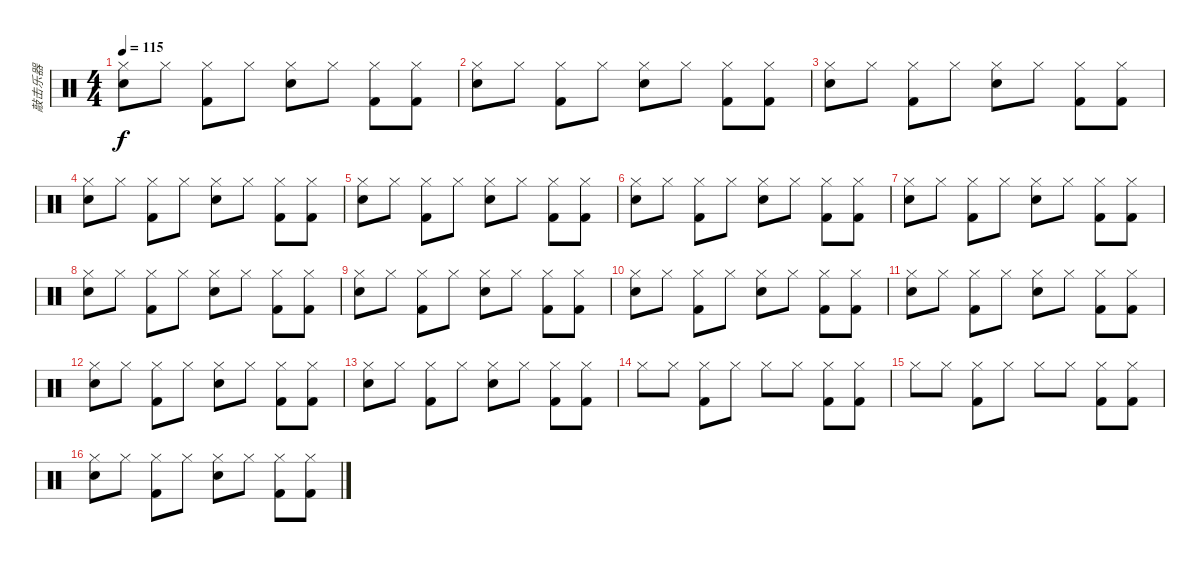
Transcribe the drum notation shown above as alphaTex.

\track ("敲击乐器" "敲击乐器") {instrument percussion}
\staff {score}
\articulation defaults
\ts (4 4)
\tempo 115
\clef neutral
\ks c
("Hi-Hat (closed)" "Electric Snare (hit)").8{dy f} "Hi-Hat (closed)".8 ("Hi-Hat (closed)" "Kick (hit) 2").8 "Hi-Hat (closed)".8 ("Hi-Hat (closed)" "Electric Snare (hit)").8 "Hi-Hat (closed)".8 ("Hi-Hat (closed)" "Kick (hit) 2").8 ("Hi-Hat (closed)" "Kick (hit) 2").8 |
("Hi-Hat (closed)" "Electric Snare (hit)").8 "Hi-Hat (closed)".8 ("Hi-Hat (closed)" "Kick (hit) 2").8 "Hi-Hat (closed)".8 ("Hi-Hat (closed)" "Electric Snare (hit)").8 "Hi-Hat (closed)".8 ("Hi-Hat (closed)" "Kick (hit) 2").8 ("Hi-Hat (closed)" "Kick (hit) 2").8 |
("Hi-Hat (closed)" "Electric Snare (hit)").8 "Hi-Hat (closed)".8 ("Hi-Hat (closed)" "Kick (hit) 2").8 "Hi-Hat (closed)".8 ("Hi-Hat (closed)" "Electric Snare (hit)").8 "Hi-Hat (closed)".8 ("Hi-Hat (closed)" "Kick (hit) 2").8 ("Hi-Hat (closed)" "Kick (hit) 2").8 |
("Hi-Hat (closed)" "Electric Snare (hit)").8 "Hi-Hat (closed)".8 ("Hi-Hat (closed)" "Kick (hit) 2").8 "Hi-Hat (closed)".8 ("Hi-Hat (closed)" "Electric Snare (hit)").8 "Hi-Hat (closed)".8 ("Hi-Hat (closed)" "Kick (hit) 2").8 ("Hi-Hat (closed)" "Kick (hit) 2").8 |
("Hi-Hat (closed)" "Electric Snare (hit)").8 "Hi-Hat (closed)".8 ("Hi-Hat (closed)" "Kick (hit) 2").8 "Hi-Hat (closed)".8 ("Hi-Hat (closed)" "Electric Snare (hit)").8 "Hi-Hat (closed)".8 ("Hi-Hat (closed)" "Kick (hit) 2").8 ("Hi-Hat (closed)" "Kick (hit) 2").8 |
("Hi-Hat (closed)" "Electric Snare (hit)").8 "Hi-Hat (closed)".8 ("Hi-Hat (closed)" "Kick (hit) 2").8 "Hi-Hat (closed)".8 ("Hi-Hat (closed)" "Electric Snare (hit)").8 "Hi-Hat (closed)".8 ("Hi-Hat (closed)" "Kick (hit) 2").8 ("Hi-Hat (closed)" "Kick (hit) 2").8 |
("Hi-Hat (closed)" "Electric Snare (hit)").8 "Hi-Hat (closed)".8 ("Hi-Hat (closed)" "Kick (hit) 2").8 "Hi-Hat (closed)".8 ("Hi-Hat (closed)" "Electric Snare (hit)").8 "Hi-Hat (closed)".8 ("Hi-Hat (closed)" "Kick (hit) 2").8 ("Hi-Hat (closed)" "Kick (hit) 2").8 |
("Hi-Hat (closed)" "Electric Snare (hit)").8 "Hi-Hat (closed)".8 ("Hi-Hat (closed)" "Kick (hit) 2").8 "Hi-Hat (closed)".8 ("Hi-Hat (closed)" "Electric Snare (hit)").8 "Hi-Hat (closed)".8 ("Hi-Hat (closed)" "Kick (hit) 2").8 ("Hi-Hat (closed)" "Kick (hit) 2").8 |
("Hi-Hat (closed)" "Electric Snare (hit)").8 "Hi-Hat (closed)".8 ("Hi-Hat (closed)" "Kick (hit) 2").8 "Hi-Hat (closed)".8 ("Hi-Hat (closed)" "Electric Snare (hit)").8 "Hi-Hat (closed)".8 ("Hi-Hat (closed)" "Kick (hit) 2").8 ("Hi-Hat (closed)" "Kick (hit) 2").8 |
("Hi-Hat (closed)" "Electric Snare (hit)").8 "Hi-Hat (closed)".8 ("Hi-Hat (closed)" "Kick (hit) 2").8 "Hi-Hat (closed)".8 ("Hi-Hat (closed)" "Electric Snare (hit)").8 "Hi-Hat (closed)".8 ("Hi-Hat (closed)" "Kick (hit) 2").8 ("Hi-Hat (closed)" "Kick (hit) 2").8 |
("Hi-Hat (closed)" "Electric Snare (hit)").8 "Hi-Hat (closed)".8 ("Hi-Hat (closed)" "Kick (hit) 2").8 "Hi-Hat (closed)".8 ("Hi-Hat (closed)" "Electric Snare (hit)").8 "Hi-Hat (closed)".8 ("Hi-Hat (closed)" "Kick (hit) 2").8 ("Hi-Hat (closed)" "Kick (hit) 2").8 |
("Hi-Hat (closed)" "Electric Snare (hit)").8 "Hi-Hat (closed)".8 ("Hi-Hat (closed)" "Kick (hit) 2").8 "Hi-Hat (closed)".8 ("Hi-Hat (closed)" "Electric Snare (hit)").8 "Hi-Hat (closed)".8 ("Hi-Hat (closed)" "Kick (hit) 2").8 ("Hi-Hat (closed)" "Kick (hit) 2").8 |
("Hi-Hat (closed)" "Electric Snare (hit)").8 "Hi-Hat (closed)".8 ("Hi-Hat (closed)" "Kick (hit) 2").8 "Hi-Hat (closed)".8 ("Hi-Hat (closed)" "Electric Snare (hit)").8 "Hi-Hat (closed)".8 ("Hi-Hat (closed)" "Kick (hit) 2").8 ("Hi-Hat (closed)" "Kick (hit) 2").8 |
"Hi-Hat (closed)".8 "Hi-Hat (closed)".8 ("Hi-Hat (closed)" "Kick (hit) 2").8 "Hi-Hat (closed)".8 "Hi-Hat (closed)".8 "Hi-Hat (closed)".8 ("Hi-Hat (closed)" "Kick (hit) 2").8 ("Hi-Hat (closed)" "Kick (hit) 2").8 |
"Hi-Hat (closed)".8 "Hi-Hat (closed)".8 ("Hi-Hat (closed)" "Kick (hit) 2").8 "Hi-Hat (closed)".8 "Hi-Hat (closed)".8 "Hi-Hat (closed)".8 ("Hi-Hat (closed)" "Kick (hit) 2").8 ("Hi-Hat (closed)" "Kick (hit) 2").8 |
("Hi-Hat (closed)" "Electric Snare (hit)").8 "Hi-Hat (closed)".8 ("Hi-Hat (closed)" "Kick (hit) 2").8 "Hi-Hat (closed)".8 ("Hi-Hat (closed)" "Electric Snare (hit)").8 "Hi-Hat (closed)".8 ("Hi-Hat (closed)" "Kick (hit) 2").8 ("Hi-Hat (closed)" "Kick (hit) 2").8
